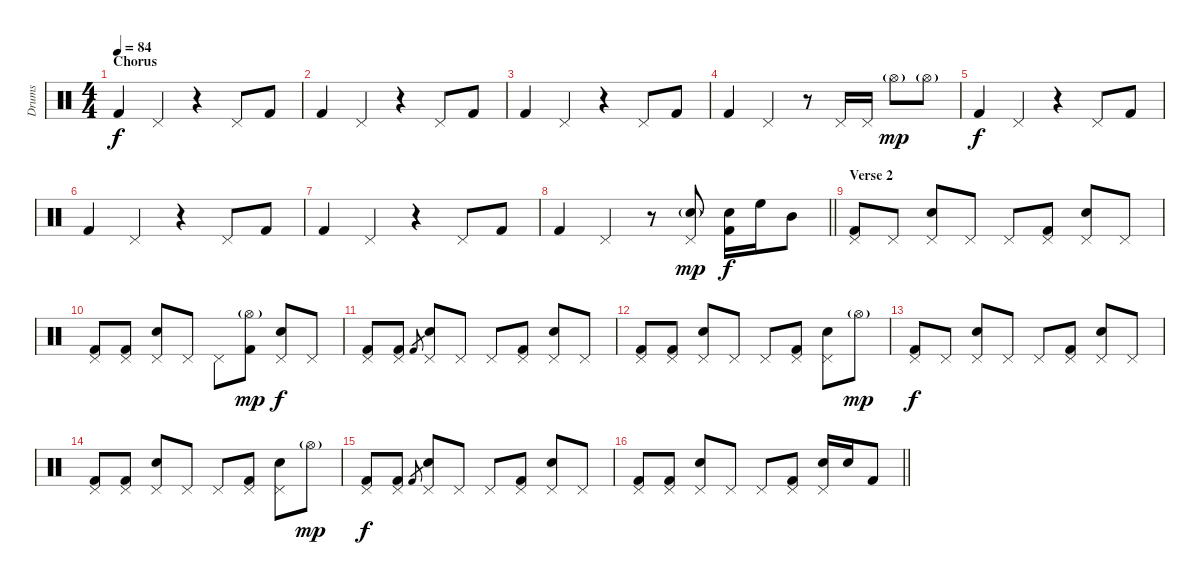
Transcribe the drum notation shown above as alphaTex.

\track ("Drums" "Drums") {instrument percussion}
\staff {score}
\articulation defaults
\ts (4 4)
\section ("" "Chorus")
\tempo 84
\clef neutral
\ks c "Kick (hit) 2".4{dy f} "Pedal Hi-Hat (hit)".4
r.4 "Pedal Hi-Hat (hit)".8 "Kick (hit) 2".8 |
"Kick (hit) 2".4 "Pedal Hi-Hat (hit)".4 r.4 "Pedal Hi-Hat (hit)".8 "Kick (hit) 2".8 |
"Kick (hit) 2".4 "Pedal Hi-Hat (hit)".4 r.4 "Pedal Hi-Hat (hit)".8 "Kick (hit) 2".8 |
"Kick (hit) 2".4 "Pedal Hi-Hat (hit)".4 r.8 "Pedal Hi-Hat (hit)".16 "Pedal Hi-Hat (hit)".16 "Hi-Hat (open)"{g}.8{dy mp} "Hi-Hat (open)"{g}.8 |
"Kick (hit) 2".4{dy f} "Pedal Hi-Hat (hit)".4 r.4 "Pedal Hi-Hat (hit)".8 "Kick (hit) 2".8 |
"Kick (hit) 2".4 "Pedal Hi-Hat (hit)".4 r.4 "Pedal Hi-Hat (hit)".8 "Kick (hit) 2".8 |
"Kick (hit) 2".4 "Pedal Hi-Hat (hit)".4 r.4 "Pedal Hi-Hat (hit)".8 "Kick (hit) 2".8 |
\barLineRight lightlight "Kick (hit) 2".4 "Pedal Hi-Hat (hit)".4
r.8 ("Pedal Hi-Hat (hit)" "Electric Snare (hit)"{g}).8{dy mp} ("Electric Snare (hit)" "Kick (hit) 2").16{dy f} "High Floor Tom (hit)".16 "Mid Tom (hit)".8 |
\section ("" "Verse 2")
("Pedal Hi-Hat (hit)" "Kick (hit) 2").8 "Pedal Hi-Hat (hit)".8 ("Pedal Hi-Hat (hit)" "Electric Snare (hit)").8 "Pedal Hi-Hat (hit)".8 "Pedal Hi-Hat (hit)".8 ("Pedal Hi-Hat (hit)" "Kick (hit) 2").8 ("Pedal Hi-Hat (hit)" "Electric Snare (hit)").8 "Pedal Hi-Hat (hit)".8 |
("Pedal Hi-Hat (hit)" "Kick (hit) 2").8 ("Pedal Hi-Hat (hit)" "Kick (hit) 2").8 ("Pedal Hi-Hat (hit)" "Electric Snare (hit)").8 "Pedal Hi-Hat (hit)".8 "Pedal Hi-Hat (hit)".8 ("Hi-Hat (open)"{g} "Kick (hit) 2").8{dy mp} ("Pedal Hi-Hat (hit)" "Electric Snare (hit)").8{dy f} "Pedal Hi-Hat (hit)".8 |
("Pedal Hi-Hat (hit)" "Kick (hit) 2").8 ("Pedal Hi-Hat (hit)" "Kick (hit) 2").8 "Kick (hit) 2".8{gr} ("Pedal Hi-Hat (hit)" "Electric Snare (hit)").8 "Pedal Hi-Hat (hit)".8 "Pedal Hi-Hat (hit)".8 ("Pedal Hi-Hat (hit)" "Kick (hit) 2").8 ("Pedal Hi-Hat (hit)" "Electric Snare (hit)").8 "Pedal Hi-Hat (hit)".8 |
("Pedal Hi-Hat (hit)" "Kick (hit) 2").8 ("Pedal Hi-Hat (hit)" "Kick (hit) 2").8 ("Pedal Hi-Hat (hit)" "Electric Snare (hit)").8 "Pedal Hi-Hat (hit)".8 "Pedal Hi-Hat (hit)".8 ("Pedal Hi-Hat (hit)" "Kick (hit) 2").8 ("Pedal Hi-Hat (hit)" "Electric Snare (hit)").8 "Hi-Hat (open)"{g}.8{dy mp} |
("Pedal Hi-Hat (hit)" "Kick (hit) 2").8{dy f} "Pedal Hi-Hat (hit)".8 ("Pedal Hi-Hat (hit)" "Electric Snare (hit)").8 "Pedal Hi-Hat (hit)".8 "Pedal Hi-Hat (hit)".8 ("Pedal Hi-Hat (hit)" "Kick (hit) 2").8 ("Pedal Hi-Hat (hit)" "Electric Snare (hit)").8 "Pedal Hi-Hat (hit)".8 |
("Pedal Hi-Hat (hit)" "Kick (hit) 2").8 ("Pedal Hi-Hat (hit)" "Kick (hit) 2").8 ("Pedal Hi-Hat (hit)" "Electric Snare (hit)").8 "Pedal Hi-Hat (hit)".8 "Pedal Hi-Hat (hit)".8 ("Pedal Hi-Hat (hit)" "Kick (hit) 2").8 ("Pedal Hi-Hat (hit)" "Electric Snare (hit)").8 "Hi-Hat (open)"{g}.8{dy mp} |
("Pedal Hi-Hat (hit)" "Kick (hit) 2").8{dy f} ("Pedal Hi-Hat (hit)" "Kick (hit) 2").8 "Kick (hit) 2".8{gr} ("Pedal Hi-Hat (hit)" "Electric Snare (hit)").8 "Pedal Hi-Hat (hit)".8 "Pedal Hi-Hat (hit)".8 ("Pedal Hi-Hat (hit)" "Kick (hit) 2").8 ("Pedal Hi-Hat (hit)" "Electric Snare (hit)").8 "Pedal Hi-Hat (hit)".8 |
\barLineRight lightlight
("Pedal Hi-Hat (hit)" "Kick (hit) 2").8 ("Pedal Hi-Hat (hit)" "Kick (hit) 2").8 ("Pedal Hi-Hat (hit)" "Electric Snare (hit)").8 "Pedal Hi-Hat (hit)".8 "Pedal Hi-Hat (hit)".8 ("Pedal Hi-Hat (hit)" "Kick (hit) 2").8 ("Pedal Hi-Hat (hit)" "Electric Snare (hit)").16 "Electric Snare (hit)".16 "Kick (hit) 2".8
